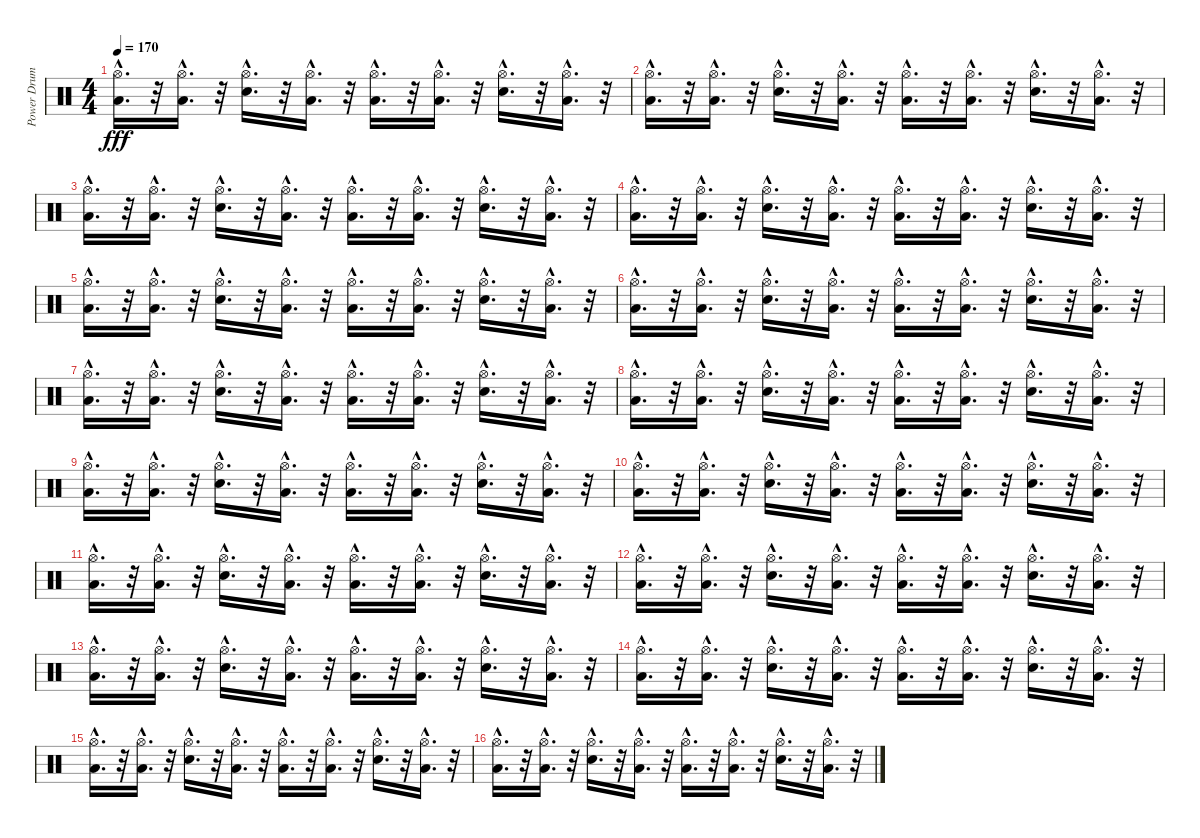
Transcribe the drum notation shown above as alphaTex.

\track ("Power Drums " "Power Drum") {instrument percussion}
\staff {score}
\articulation defaults
\ts (4 4)
\tempo 170
\clef neutral
\ks c
("Hi-Hat (open)"{hac} "Low Floor Tom (hit)"{hac}).16{d dy fff} r.32 ("Hi-Hat (open)"{hac} "Low Floor Tom (hit)"{hac}).16{d} r.32 ("Hi-Hat (open)"{hac} "Snare (hit) 2"{hac}).16{d} r.32 ("Hi-Hat (open)"{hac} "Low Floor Tom (hit)"{hac}).16{d} r.32 ("Hi-Hat (open)"{hac} "Low Floor Tom (hit)"{hac}).16{d} r.32 ("Hi-Hat (open)"{hac} "Low Floor Tom (hit)"{hac}).16{d} r.32 ("Hi-Hat (open)"{hac} "Snare (hit) 2"{hac}).16{d} r.32 ("Hi-Hat (open)"{hac} "Low Floor Tom (hit)"{hac}).16{d} r.32 |
("Hi-Hat (open)"{hac} "Low Floor Tom (hit)"{hac}).16{d} r.32 ("Hi-Hat (open)"{hac} "Low Floor Tom (hit)"{hac}).16{d} r.32 ("Hi-Hat (open)"{hac} "Snare (hit) 2"{hac}).16{d} r.32 ("Hi-Hat (open)"{hac} "Low Floor Tom (hit)"{hac}).16{d} r.32 ("Hi-Hat (open)"{hac} "Low Floor Tom (hit)"{hac}).16{d} r.32 ("Hi-Hat (open)"{hac} "Low Floor Tom (hit)"{hac}).16{d} r.32 ("Hi-Hat (open)"{hac} "Snare (hit) 2"{hac}).16{d} r.32 ("Hi-Hat (open)"{hac} "Low Floor Tom (hit)"{hac}).16{d} r.32 |
("Hi-Hat (open)"{hac} "Low Floor Tom (hit)"{hac}).16{d} r.32 ("Hi-Hat (open)"{hac} "Low Floor Tom (hit)"{hac}).16{d} r.32 ("Hi-Hat (open)"{hac} "Snare (hit) 2"{hac}).16{d} r.32 ("Hi-Hat (open)"{hac} "Low Floor Tom (hit)"{hac}).16{d} r.32 ("Hi-Hat (open)"{hac} "Low Floor Tom (hit)"{hac}).16{d} r.32 ("Hi-Hat (open)"{hac} "Low Floor Tom (hit)"{hac}).16{d} r.32 ("Hi-Hat (open)"{hac} "Snare (hit) 2"{hac}).16{d} r.32 ("Hi-Hat (open)"{hac} "Low Floor Tom (hit)"{hac}).16{d} r.32 |
("Hi-Hat (open)"{hac} "Low Floor Tom (hit)"{hac}).16{d} r.32 ("Hi-Hat (open)"{hac} "Low Floor Tom (hit)"{hac}).16{d} r.32 ("Hi-Hat (open)"{hac} "Snare (hit) 2"{hac}).16{d} r.32 ("Hi-Hat (open)"{hac} "Low Floor Tom (hit)"{hac}).16{d} r.32 ("Hi-Hat (open)"{hac} "Low Floor Tom (hit)"{hac}).16{d} r.32 ("Hi-Hat (open)"{hac} "Low Floor Tom (hit)"{hac}).16{d} r.32 ("Hi-Hat (open)"{hac} "Snare (hit) 2"{hac}).16{d} r.32 ("Hi-Hat (open)"{hac} "Low Floor Tom (hit)"{hac}).16{d} r.32 |
("Hi-Hat (open)"{hac} "Low Floor Tom (hit)"{hac}).16{d} r.32 ("Hi-Hat (open)"{hac} "Low Floor Tom (hit)"{hac}).16{d} r.32 ("Hi-Hat (open)"{hac} "Snare (hit) 2"{hac}).16{d} r.32 ("Hi-Hat (open)"{hac} "Low Floor Tom (hit)"{hac}).16{d} r.32 ("Hi-Hat (open)"{hac} "Low Floor Tom (hit)"{hac}).16{d} r.32 ("Hi-Hat (open)"{hac} "Low Floor Tom (hit)"{hac}).16{d} r.32 ("Hi-Hat (open)"{hac} "Snare (hit) 2"{hac}).16{d} r.32 ("Hi-Hat (open)"{hac} "Low Floor Tom (hit)"{hac}).16{d} r.32 |
("Hi-Hat (open)"{hac} "Low Floor Tom (hit)"{hac}).16{d} r.32 ("Hi-Hat (open)"{hac} "Low Floor Tom (hit)"{hac}).16{d} r.32 ("Hi-Hat (open)"{hac} "Snare (hit) 2"{hac}).16{d} r.32 ("Hi-Hat (open)"{hac} "Low Floor Tom (hit)"{hac}).16{d} r.32 ("Hi-Hat (open)"{hac} "Low Floor Tom (hit)"{hac}).16{d} r.32 ("Hi-Hat (open)"{hac} "Low Floor Tom (hit)"{hac}).16{d} r.32 ("Hi-Hat (open)"{hac} "Snare (hit) 2"{hac}).16{d} r.32 ("Hi-Hat (open)"{hac} "Low Floor Tom (hit)"{hac}).16{d} r.32 |
("Hi-Hat (open)"{hac} "Low Floor Tom (hit)"{hac}).16{d} r.32 ("Hi-Hat (open)"{hac} "Low Floor Tom (hit)"{hac}).16{d} r.32 ("Hi-Hat (open)"{hac} "Snare (hit) 2"{hac}).16{d} r.32 ("Hi-Hat (open)"{hac} "Low Floor Tom (hit)"{hac}).16{d} r.32 ("Hi-Hat (open)"{hac} "Low Floor Tom (hit)"{hac}).16{d} r.32 ("Hi-Hat (open)"{hac} "Low Floor Tom (hit)"{hac}).16{d} r.32 ("Hi-Hat (open)"{hac} "Snare (hit) 2"{hac}).16{d} r.32 ("Hi-Hat (open)"{hac} "Low Floor Tom (hit)"{hac}).16{d} r.32 |
("Hi-Hat (open)"{hac} "Low Floor Tom (hit)"{hac}).16{d} r.32 ("Hi-Hat (open)"{hac} "Low Floor Tom (hit)"{hac}).16{d} r.32 ("Hi-Hat (open)"{hac} "Snare (hit) 2"{hac}).16{d} r.32 ("Hi-Hat (open)"{hac} "Low Floor Tom (hit)"{hac}).16{d} r.32 ("Hi-Hat (open)"{hac} "Low Floor Tom (hit)"{hac}).16{d} r.32 ("Hi-Hat (open)"{hac} "Low Floor Tom (hit)"{hac}).16{d} r.32 ("Hi-Hat (open)"{hac} "Snare (hit) 2"{hac}).16{d} r.32 ("Hi-Hat (open)"{hac} "Low Floor Tom (hit)"{hac}).16{d} r.32 |
("Hi-Hat (open)"{hac} "Low Floor Tom (hit)"{hac}).16{d} r.32 ("Hi-Hat (open)"{hac} "Low Floor Tom (hit)"{hac}).16{d} r.32 ("Hi-Hat (open)"{hac} "Snare (hit) 2"{hac}).16{d} r.32 ("Hi-Hat (open)"{hac} "Low Floor Tom (hit)"{hac}).16{d} r.32 ("Hi-Hat (open)"{hac} "Low Floor Tom (hit)"{hac}).16{d} r.32 ("Hi-Hat (open)"{hac} "Low Floor Tom (hit)"{hac}).16{d} r.32 ("Hi-Hat (open)"{hac} "Snare (hit) 2"{hac}).16{d} r.32 ("Hi-Hat (open)"{hac} "Low Floor Tom (hit)"{hac}).16{d} r.32 |
("Hi-Hat (open)"{hac} "Low Floor Tom (hit)"{hac}).16{d} r.32 ("Hi-Hat (open)"{hac} "Low Floor Tom (hit)"{hac}).16{d} r.32 ("Hi-Hat (open)"{hac} "Snare (hit) 2"{hac}).16{d} r.32 ("Hi-Hat (open)"{hac} "Low Floor Tom (hit)"{hac}).16{d} r.32 ("Hi-Hat (open)"{hac} "Low Floor Tom (hit)"{hac}).16{d} r.32 ("Hi-Hat (open)"{hac} "Low Floor Tom (hit)"{hac}).16{d} r.32 ("Hi-Hat (open)"{hac} "Snare (hit) 2"{hac}).16{d} r.32 ("Hi-Hat (open)"{hac} "Low Floor Tom (hit)"{hac}).16{d} r.32 |
("Hi-Hat (open)"{hac} "Low Floor Tom (hit)"{hac}).16{d} r.32 ("Hi-Hat (open)"{hac} "Low Floor Tom (hit)"{hac}).16{d} r.32 ("Hi-Hat (open)"{hac} "Snare (hit) 2"{hac}).16{d} r.32 ("Hi-Hat (open)"{hac} "Low Floor Tom (hit)"{hac}).16{d} r.32 ("Hi-Hat (open)"{hac} "Low Floor Tom (hit)"{hac}).16{d} r.32 ("Hi-Hat (open)"{hac} "Low Floor Tom (hit)"{hac}).16{d} r.32 ("Hi-Hat (open)"{hac} "Snare (hit) 2"{hac}).16{d} r.32 ("Hi-Hat (open)"{hac} "Low Floor Tom (hit)"{hac}).16{d} r.32 |
("Hi-Hat (open)"{hac} "Low Floor Tom (hit)"{hac}).16{d} r.32 ("Hi-Hat (open)"{hac} "Low Floor Tom (hit)"{hac}).16{d} r.32 ("Hi-Hat (open)"{hac} "Snare (hit) 2"{hac}).16{d} r.32 ("Hi-Hat (open)"{hac} "Low Floor Tom (hit)"{hac}).16{d} r.32 ("Hi-Hat (open)"{hac} "Low Floor Tom (hit)"{hac}).16{d} r.32 ("Hi-Hat (open)"{hac} "Low Floor Tom (hit)"{hac}).16{d} r.32 ("Hi-Hat (open)"{hac} "Snare (hit) 2"{hac}).16{d} r.32 ("Hi-Hat (open)"{hac} "Low Floor Tom (hit)"{hac}).16{d} r.32 |
("Hi-Hat (open)"{hac} "Low Floor Tom (hit)"{hac}).16{d} r.32 ("Hi-Hat (open)"{hac} "Low Floor Tom (hit)"{hac}).16{d} r.32 ("Hi-Hat (open)"{hac} "Snare (hit) 2"{hac}).16{d} r.32 ("Hi-Hat (open)"{hac} "Low Floor Tom (hit)"{hac}).16{d} r.32 ("Hi-Hat (open)"{hac} "Low Floor Tom (hit)"{hac}).16{d} r.32 ("Hi-Hat (open)"{hac} "Low Floor Tom (hit)"{hac}).16{d} r.32 ("Hi-Hat (open)"{hac} "Snare (hit) 2"{hac}).16{d} r.32 ("Hi-Hat (open)"{hac} "Low Floor Tom (hit)"{hac}).16{d} r.32 |
("Hi-Hat (open)"{hac} "Low Floor Tom (hit)"{hac}).16{d} r.32 ("Hi-Hat (open)"{hac} "Low Floor Tom (hit)"{hac}).16{d} r.32 ("Hi-Hat (open)"{hac} "Snare (hit) 2"{hac}).16{d} r.32 ("Hi-Hat (open)"{hac} "Low Floor Tom (hit)"{hac}).16{d} r.32 ("Hi-Hat (open)"{hac} "Low Floor Tom (hit)"{hac}).16{d} r.32 ("Hi-Hat (open)"{hac} "Low Floor Tom (hit)"{hac}).16{d} r.32 ("Hi-Hat (open)"{hac} "Snare (hit) 2"{hac}).16{d} r.32 ("Hi-Hat (open)"{hac} "Low Floor Tom (hit)"{hac}).16{d} r.32 |
("Hi-Hat (open)"{hac} "Low Floor Tom (hit)"{hac}).16{d} r.32 ("Hi-Hat (open)"{hac} "Low Floor Tom (hit)"{hac}).16{d} r.32 ("Hi-Hat (open)"{hac} "Snare (hit) 2"{hac}).16{d} r.32 ("Hi-Hat (open)"{hac} "Low Floor Tom (hit)"{hac}).16{d} r.32 ("Hi-Hat (open)"{hac} "Low Floor Tom (hit)"{hac}).16{d} r.32 ("Hi-Hat (open)"{hac} "Low Floor Tom (hit)"{hac}).16{d} r.32 ("Hi-Hat (open)"{hac} "Snare (hit) 2"{hac}).16{d} r.32 ("Hi-Hat (open)"{hac} "Low Floor Tom (hit)"{hac}).16{d} r.32 |
("Hi-Hat (open)"{hac} "Low Floor Tom (hit)"{hac}).16{d} r.32 ("Hi-Hat (open)"{hac} "Low Floor Tom (hit)"{hac}).16{d} r.32 ("Hi-Hat (open)"{hac} "Snare (hit) 2"{hac}).16{d} r.32 ("Hi-Hat (open)"{hac} "Low Floor Tom (hit)"{hac}).16{d} r.32 ("Hi-Hat (open)"{hac} "Low Floor Tom (hit)"{hac}).16{d} r.32 ("Hi-Hat (open)"{hac} "Low Floor Tom (hit)"{hac}).16{d} r.32 ("Hi-Hat (open)"{hac} "Snare (hit) 2"{hac}).16{d} r.32 ("Hi-Hat (open)"{hac} "Low Floor Tom (hit)"{hac}).16{d} r.32
